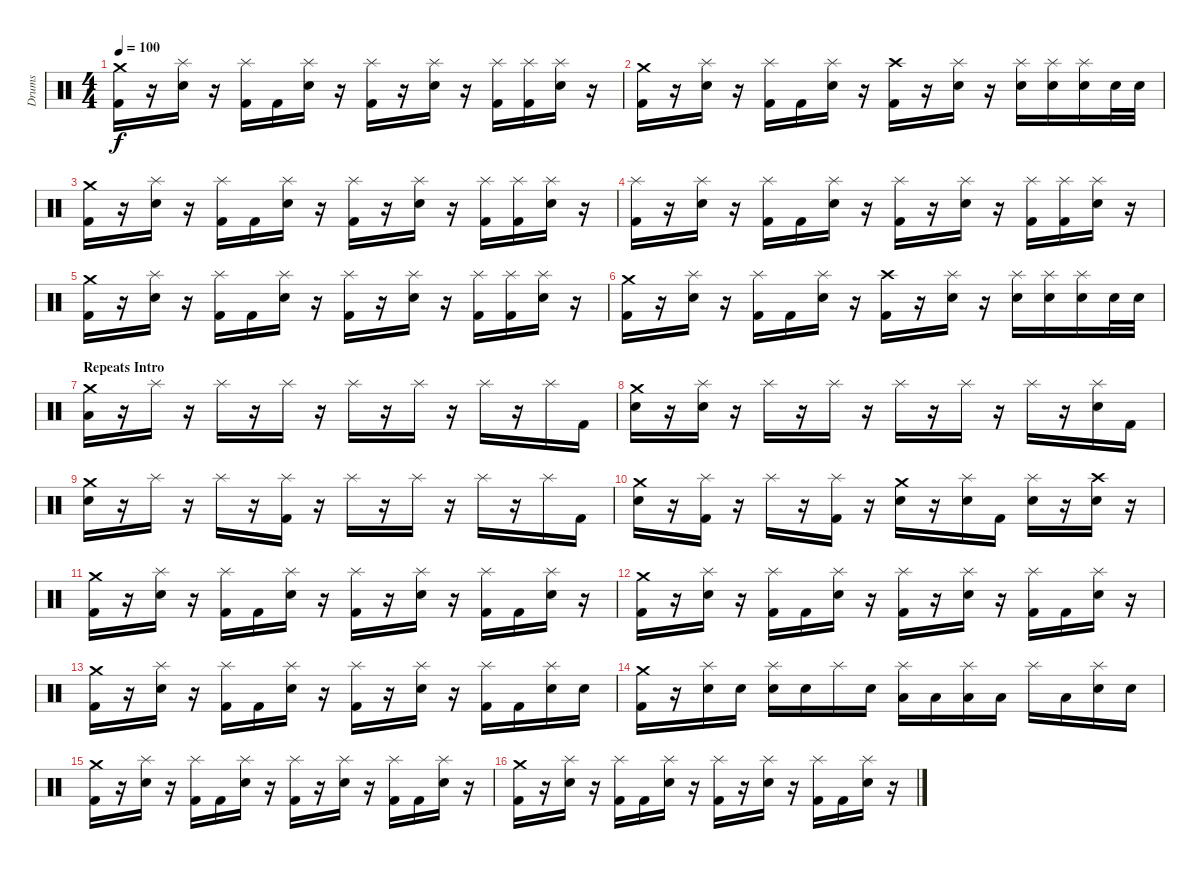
\track ("Drums" "Drums") {instrument percussion}
\staff {score}
\articulation defaults
\ts (4 4)
\tempo 100
\clef neutral
\ks c
("Crash medium (hit)" "Kick (hit) 2").16{dy f} r.16 ("Splash (hit)" "Snare (hit) 2").16 r.16 ("Splash (hit)" "Kick (hit) 2").16 "Kick (hit) 2".16 ("Splash (hit)" "Snare (hit) 2").16 r.16 ("Splash (hit)" "Kick (hit) 2").16 r.16 ("Splash (hit)" "Snare (hit) 2").16 r.16 ("Splash (hit)" "Kick (hit) 2").16 ("Splash (hit)" "Kick (hit) 2").16 ("Splash (hit)" "Snare (hit) 2").16 r.16 |
("Crash medium (hit)" "Kick (hit) 2").16 r.16 ("Splash (hit)" "Snare (hit) 2").16 r.16 ("Splash (hit)" "Kick (hit) 2").16 "Kick (hit) 2".16 ("Splash (hit)" "Snare (hit) 2").16 r.16 ("Crash high (hit)" "Kick (hit) 2").16 r.16 ("Splash (hit)" "Snare (hit) 2").16 r.16 ("Splash (hit)" "Snare (hit) 2").16 ("Splash (hit)" "Snare (hit) 2").16 ("Splash (hit)" "Snare (hit) 2").16 "Snare (hit) 2".32 "Snare (hit) 2".32 |
("Crash medium (hit)" "Kick (hit) 2").16 r.16 ("Splash (hit)" "Snare (hit) 2").16 r.16 ("Splash (hit)" "Kick (hit) 2").16 "Kick (hit) 2".16 ("Splash (hit)" "Snare (hit) 2").16 r.16 ("Splash (hit)" "Kick (hit) 2").16 r.16 ("Splash (hit)" "Snare (hit) 2").16 r.16 ("Splash (hit)" "Kick (hit) 2").16 ("Splash (hit)" "Kick (hit) 2").16 ("Splash (hit)" "Snare (hit) 2").16 r.16 |
("Splash (hit)" "Kick (hit) 2").16 r.16 ("Splash (hit)" "Snare (hit) 2").16 r.16 ("Splash (hit)" "Kick (hit) 2").16 "Kick (hit) 2".16 ("Splash (hit)" "Snare (hit) 2").16 r.16 ("Splash (hit)" "Kick (hit) 2").16 r.16 ("Splash (hit)" "Snare (hit) 2").16 r.16 ("Splash (hit)" "Kick (hit) 2").16 ("Splash (hit)" "Kick (hit) 2").16 ("Splash (hit)" "Snare (hit) 2").16 r.16 |
("Crash medium (hit)" "Kick (hit) 2").16 r.16 ("Splash (hit)" "Snare (hit) 2").16 r.16 ("Splash (hit)" "Kick (hit) 2").16 "Kick (hit) 2".16 ("Splash (hit)" "Snare (hit) 2").16 r.16 ("Splash (hit)" "Kick (hit) 2").16 r.16 ("Splash (hit)" "Snare (hit) 2").16 r.16 ("Splash (hit)" "Kick (hit) 2").16 ("Splash (hit)" "Kick (hit) 2").16 ("Splash (hit)" "Snare (hit) 2").16 r.16 |
("Crash medium (hit)" "Kick (hit) 2").16 r.16 ("Splash (hit)" "Snare (hit) 2").16 r.16 ("Splash (hit)" "Kick (hit) 2").16 "Kick (hit) 2".16 ("Splash (hit)" "Snare (hit) 2").16 r.16 ("Crash high (hit)" "Kick (hit) 2").16 r.16 ("Splash (hit)" "Snare (hit) 2").16 r.16 ("Splash (hit)" "Snare (hit) 2").16 ("Splash (hit)" "Snare (hit) 2").16 ("Splash (hit)" "Snare (hit) 2").16 "Snare (hit) 2".32 "Snare (hit) 2".32 |
\section ("" "Repeats Intro")
("Crash medium (hit)" "Low Tom (hit)").16 r.16 "Splash (hit)".16 r.16 "Splash (hit)".16 r.16 "Splash (hit)".16 r.16 "Splash (hit)".16 r.16 "Splash (hit)".16 r.16 "Splash (hit)".16 r.16 "Splash (hit)".16 "Kick (hit) 2".16 |
("Crash medium (hit)" "Snare (hit) 2").16 r.16 ("Splash (hit)" "Snare (hit) 2").16 r.16 "Splash (hit)".16 r.16 "Splash (hit)".16 r.16 "Splash (hit)".16 r.16 "Splash (hit)".16 r.16 "Splash (hit)".16 r.16 ("Splash (hit)" "Snare (hit) 2").16 "Kick (hit) 2".16 |
("Crash medium (hit)" "Snare (hit) 2").16 r.16 "Splash (hit)".16 r.16 "Splash (hit)".16 r.16 ("Splash (hit)" "Kick (hit) 2").16 r.16 "Splash (hit)".16 r.16 "Splash (hit)".16 r.16 "Splash (hit)".16 r.16 "Splash (hit)".16 "Kick (hit) 2".16 |
("Crash medium (hit)" "Snare (hit) 2").16 r.16 ("Splash (hit)" "Kick (hit) 2").16 r.16 "Splash (hit)".16 r.16 ("Splash (hit)" "Kick (hit) 2").16 r.16 ("Crash medium (hit)" "Snare (hit) 2").16 r.16 ("Splash (hit)" "Snare (hit) 2").16 "Kick (hit) 2".16 ("Splash (hit)" "Snare (hit) 2").16 r.16 ("Crash high (hit)" "Snare (hit) 2").16 r.16 |
("Crash medium (hit)" "Kick (hit) 2").16 r.16 ("Splash (hit)" "Snare (hit) 2").16 r.16 ("Splash (hit)" "Kick (hit) 2").16 "Kick (hit) 2".16 ("Splash (hit)" "Snare (hit) 2").16 r.16 ("Splash (hit)" "Kick (hit) 2").16 r.16 ("Splash (hit)" "Snare (hit) 2").16 r.16 ("Splash (hit)" "Kick (hit) 2").16 "Kick (hit) 2".16 ("Splash (hit)" "Snare (hit) 2").16 r.16 |
("Crash medium (hit)" "Kick (hit) 2").16 r.16 ("Splash (hit)" "Snare (hit) 2").16 r.16 ("Splash (hit)" "Kick (hit) 2").16 "Kick (hit) 2".16 ("Splash (hit)" "Snare (hit) 2").16 r.16 ("Splash (hit)" "Kick (hit) 2").16 r.16 ("Splash (hit)" "Snare (hit) 2").16 r.16 ("Splash (hit)" "Kick (hit) 2").16 "Kick (hit) 2".16 ("Splash (hit)" "Snare (hit) 2").16 r.16 |
("Crash medium (hit)" "Kick (hit) 2").16 r.16 ("Splash (hit)" "Snare (hit) 2").16 r.16 ("Splash (hit)" "Kick (hit) 2").16 "Kick (hit) 2".16 ("Splash (hit)" "Snare (hit) 2").16 r.16 ("Splash (hit)" "Kick (hit) 2").16 r.16 ("Splash (hit)" "Snare (hit) 2").16 r.16 ("Splash (hit)" "Kick (hit) 2").16 "Kick (hit) 2".16 ("Splash (hit)" "Snare (hit) 2").16 "Snare (hit) 2".16 |
("Crash medium (hit)" "Kick (hit) 2").16 r.16 ("Splash (hit)" "Snare (hit) 2").16 "Snare (hit) 2".16 ("Splash (hit)" "Snare (hit) 2").16 "Snare (hit) 2".16 "Splash (hit)".16 "Snare (hit) 2".16 ("Splash (hit)" "Low Tom (hit)").16 "Low Tom (hit)".16 ("Splash (hit)" "Low Tom (hit)").16 "Low Tom (hit)".16 "Splash (hit)".16 "Low Tom (hit)".16 ("Splash (hit)" "Snare (hit) 2").16 "Snare (hit) 2".16 |
("Crash medium (hit)" "Kick (hit) 2").16 r.16 ("Splash (hit)" "Snare (hit) 2").16 r.16 ("Splash (hit)" "Kick (hit) 2").16 "Kick (hit) 2".16 ("Splash (hit)" "Snare (hit) 2").16 r.16 ("Splash (hit)" "Kick (hit) 2").16 r.16 ("Splash (hit)" "Snare (hit) 2").16 r.16 ("Splash (hit)" "Kick (hit) 2").16 "Kick (hit) 2".16 ("Splash (hit)" "Snare (hit) 2").16 r.16 |
("Crash medium (hit)" "Kick (hit) 2").16 r.16 ("Splash (hit)" "Snare (hit) 2").16 r.16 ("Splash (hit)" "Kick (hit) 2").16 "Kick (hit) 2".16 ("Splash (hit)" "Snare (hit) 2").16 r.16 ("Splash (hit)" "Kick (hit) 2").16 r.16 ("Splash (hit)" "Snare (hit) 2").16 r.16 ("Splash (hit)" "Kick (hit) 2").16 "Kick (hit) 2".16 ("Splash (hit)" "Snare (hit) 2").16 r.16
